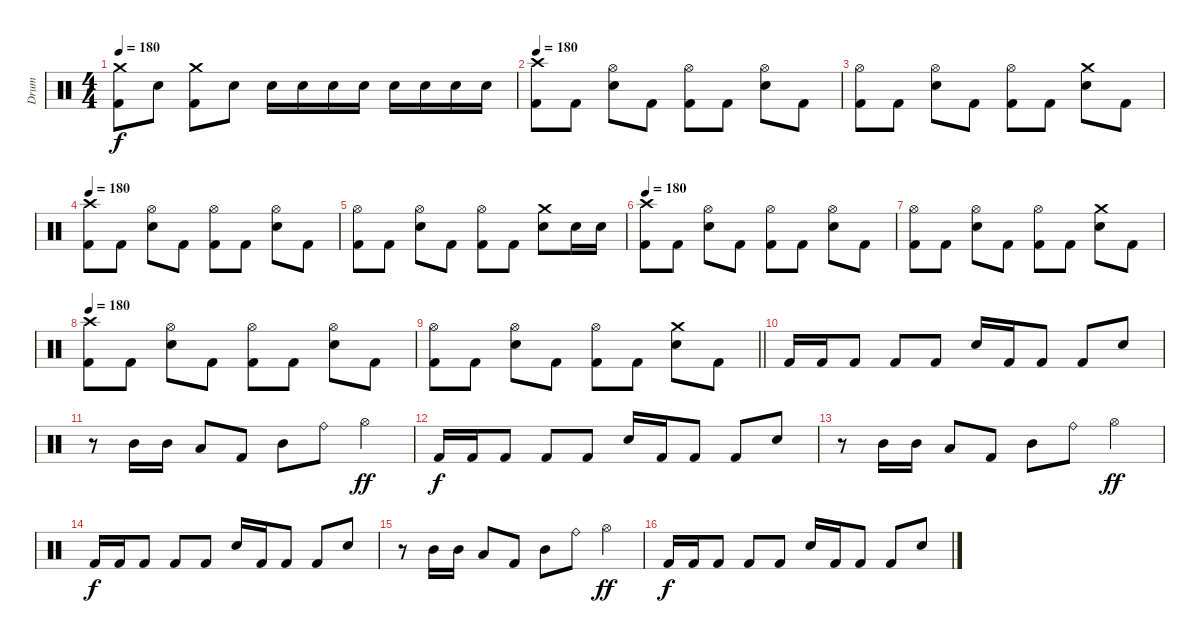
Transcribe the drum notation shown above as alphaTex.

\track ("Drum" "Drum") {instrument percussion}
\staff {score}
\articulation defaults
\ts (4 4)
\tempo 180
\clef neutral
\ks c
("Crash medium (hit)" "Kick (hit) 2").8{dy f} "Snare (hit) 2".8 ("Crash medium (hit)" "Kick (hit) 2").8 "Snare (hit) 2".8 "Snare (hit) 2".16 "Snare (hit) 2".16 "Snare (hit) 2".16 "Snare (hit) 2".16 "Snare (hit) 2".16 "Snare (hit) 2".16 "Snare (hit) 2".16 "Snare (hit) 2".16 |
\tempo 180
("Crash high (hit)" "Kick (hit) 2").8 "Kick (hit) 2".8 ("Hi-Hat (open)" "Snare (hit) 2").8 "Kick (hit) 2".8 ("Hi-Hat (open)" "Kick (hit) 2").8 "Kick (hit) 2".8 ("Hi-Hat (open)" "Snare (hit) 2").8 "Kick (hit) 2".8 |
("Hi-Hat (open)" "Kick (hit) 2").8 "Kick (hit) 2".8 ("Hi-Hat (open)" "Snare (hit) 2").8 "Kick (hit) 2".8 ("Hi-Hat (open)" "Kick (hit) 2").8 "Kick (hit) 2".8 ("Crash medium (hit)" "Snare (hit) 2").8 "Kick (hit) 2".8 |
\tempo 180
("Crash high (hit)" "Kick (hit) 2").8 "Kick (hit) 2".8 ("Hi-Hat (open)" "Snare (hit) 2").8 "Kick (hit) 2".8 ("Hi-Hat (open)" "Kick (hit) 2").8 "Kick (hit) 2".8 ("Hi-Hat (open)" "Snare (hit) 2").8 "Kick (hit) 2".8 |
("Hi-Hat (open)" "Kick (hit) 2").8 "Kick (hit) 2".8 ("Hi-Hat (open)" "Snare (hit) 2").8 "Kick (hit) 2".8 ("Hi-Hat (open)" "Kick (hit) 2").8 "Kick (hit) 2".8 ("Crash medium (hit)" "Snare (hit) 2").8 "Snare (hit) 2".16 "Snare (hit) 2".16 |
\tempo 180
("Crash high (hit)" "Kick (hit) 2").8 "Kick (hit) 2".8 ("Hi-Hat (open)" "Snare (hit) 2").8 "Kick (hit) 2".8 ("Hi-Hat (open)" "Kick (hit) 2").8 "Kick (hit) 2".8 ("Hi-Hat (open)" "Snare (hit) 2").8 "Kick (hit) 2".8 |
("Hi-Hat (open)" "Kick (hit) 2").8 "Kick (hit) 2".8 ("Hi-Hat (open)" "Snare (hit) 2").8 "Kick (hit) 2".8 ("Hi-Hat (open)" "Kick (hit) 2").8 "Kick (hit) 2".8 ("Crash medium (hit)" "Snare (hit) 2").8 "Kick (hit) 2".8 |
\tempo 180
("Crash high (hit)" "Kick (hit) 2").8 "Kick (hit) 2".8 ("Hi-Hat (open)" "Snare (hit) 2").8 "Kick (hit) 2".8 ("Hi-Hat (open)" "Kick (hit) 2").8 "Kick (hit) 2".8 ("Hi-Hat (open)" "Snare (hit) 2").8 "Kick (hit) 2".8 |
\barLineRight lightlight
("Hi-Hat (open)" "Kick (hit) 2").8 "Kick (hit) 2".8 ("Hi-Hat (open)" "Snare (hit) 2").8 "Kick (hit) 2".8 ("Hi-Hat (open)" "Kick (hit) 2").8 "Kick (hit) 2".8 ("Crash medium (hit)" "Snare (hit) 2").8 "Kick (hit) 2".8 |
"Kick (hit) 2".16 "Kick (hit) 2".16 "Kick (hit) 2".8 "Kick (hit) 2".8 "Kick (hit) 2".8 "Snare (hit) 2".16 "Kick (hit) 2".16 "Kick (hit) 2".8 "Kick (hit) 2".8 "Snare (hit) 2".8 |
r.8 "Mid Tom (hit)".16 "Mid Tom (hit)".16 "Low Tom (hit)".8 "Kick (hit) 2".8 "Mid Tom (hit)".8 "Ride (bell)".8 "Hi-Hat (open)".4{dy ff} |
"Kick (hit) 2".16{dy f} "Kick (hit) 2".16 "Kick (hit) 2".8 "Kick (hit) 2".8 "Kick (hit) 2".8 "Snare (hit) 2".16 "Kick (hit) 2".16 "Kick (hit) 2".8 "Kick (hit) 2".8 "Snare (hit) 2".8 |
r.8 "Mid Tom (hit)".16 "Mid Tom (hit)".16 "Low Tom (hit)".8 "Kick (hit) 2".8 "Mid Tom (hit)".8 "Ride (bell)".8 "Hi-Hat (open)".4{dy ff} |
"Kick (hit) 2".16{dy f} "Kick (hit) 2".16 "Kick (hit) 2".8 "Kick (hit) 2".8 "Kick (hit) 2".8 "Snare (hit) 2".16 "Kick (hit) 2".16 "Kick (hit) 2".8 "Kick (hit) 2".8 "Snare (hit) 2".8 |
r.8 "Mid Tom (hit)".16 "Mid Tom (hit)".16 "Low Tom (hit)".8 "Kick (hit) 2".8 "Mid Tom (hit)".8 "Ride (bell)".8 "Hi-Hat (open)".4{dy ff} |
"Kick (hit) 2".16{dy f} "Kick (hit) 2".16 "Kick (hit) 2".8 "Kick (hit) 2".8 "Kick (hit) 2".8 "Snare (hit) 2".16 "Kick (hit) 2".16 "Kick (hit) 2".8 "Kick (hit) 2".8 "Snare (hit) 2".8
